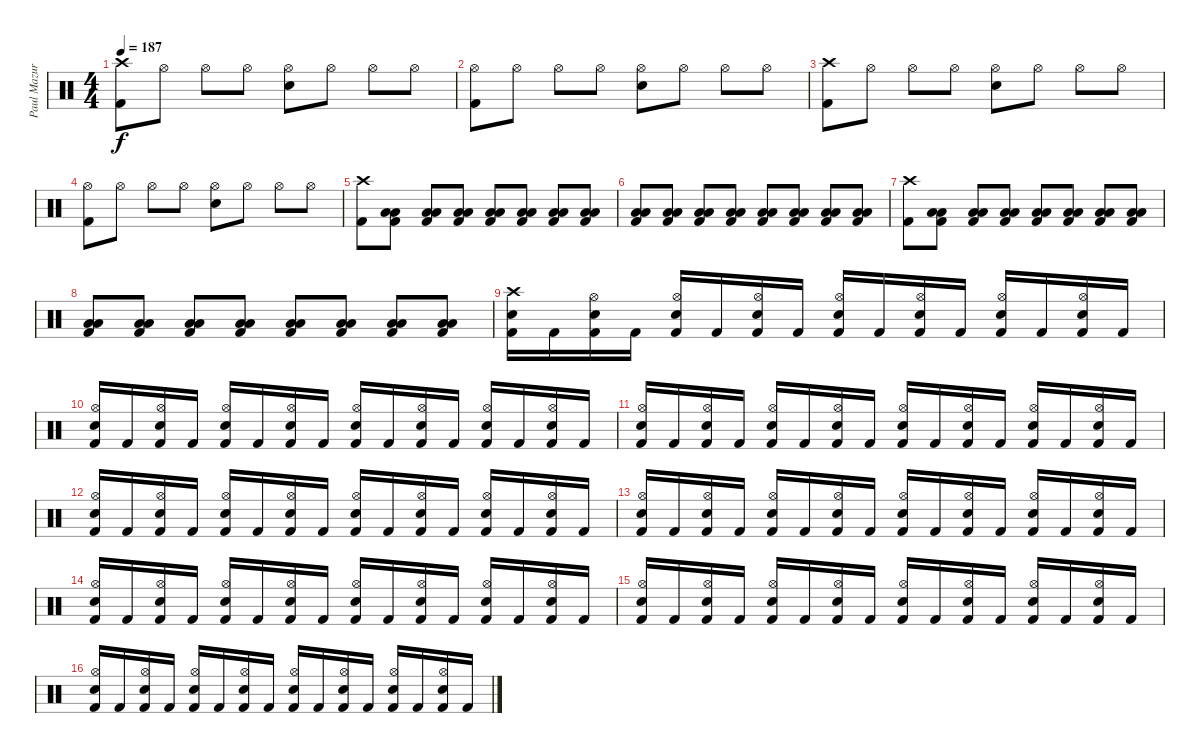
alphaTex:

\track ("Paul Mazurkiewicz - Drums" "Paul Mazur") {instrument percussion}
\staff {score}
\articulation defaults
\ts (4 4)
\tempo 187
\clef neutral
\ks c
("Crash high (hit)" "Kick (hit) 2").8{dy f} "Hi-Hat (open)".8 "Hi-Hat (open)".8 "Hi-Hat (open)".8 ("Hi-Hat (open)" "Snare (hit) 2").8 "Hi-Hat (open)".8 "Hi-Hat (open)".8 "Hi-Hat (open)".8 |
("Hi-Hat (open)" "Kick (hit) 2").8 "Hi-Hat (open)".8 "Hi-Hat (open)".8 "Hi-Hat (open)".8 ("Hi-Hat (open)" "Snare (hit) 2").8 "Hi-Hat (open)".8 "Hi-Hat (open)".8 "Hi-Hat (open)".8 |
("Crash high (hit)" "Kick (hit) 2").8 "Hi-Hat (open)".8 "Hi-Hat (open)".8 "Hi-Hat (open)".8 ("Hi-Hat (open)" "Snare (hit) 2").8 "Hi-Hat (open)".8 "Hi-Hat (open)".8 "Hi-Hat (open)".8 |
("Hi-Hat (open)" "Kick (hit) 2").8 "Hi-Hat (open)".8 "Hi-Hat (open)".8 "Hi-Hat (open)".8 ("Hi-Hat (open)" "Snare (hit) 2").8 "Hi-Hat (open)".8 "Hi-Hat (open)".8 "Hi-Hat (open)".8 |
("Kick (hit) 2" "Crash high (hit)").8{volume 16} ("Low Tom (hit)" "Low Floor Tom (hit)" "Kick (hit) 2").8 ("Low Tom (hit)" "Low Floor Tom (hit)" "Kick (hit) 2").8 ("Low Tom (hit)" "Low Floor Tom (hit)" "Kick (hit) 2").8 ("Low Tom (hit)" "Low Floor Tom (hit)" "Kick (hit) 2").8 ("Low Tom (hit)" "Low Floor Tom (hit)" "Kick (hit) 2").8 ("Low Tom (hit)" "Low Floor Tom (hit)" "Kick (hit) 2").8 ("Low Tom (hit)" "Low Floor Tom (hit)" "Kick (hit) 2").8 |
("Low Tom (hit)" "Low Floor Tom (hit)" "Kick (hit) 2").8 ("Low Tom (hit)" "Low Floor Tom (hit)" "Kick (hit) 2").8 ("Low Tom (hit)" "Low Floor Tom (hit)" "Kick (hit) 2").8 ("Low Tom (hit)" "Low Floor Tom (hit)" "Kick (hit) 2").8 ("Low Tom (hit)" "Low Floor Tom (hit)" "Kick (hit) 2").8 ("Low Tom (hit)" "Low Floor Tom (hit)" "Kick (hit) 2").8 ("Low Tom (hit)" "Low Floor Tom (hit)" "Kick (hit) 2").8 ("Low Tom (hit)" "Low Floor Tom (hit)" "Kick (hit) 2").8 |
("Kick (hit) 2" "Crash high (hit)").8{volume 16} ("Low Tom (hit)" "Low Floor Tom (hit)" "Kick (hit) 2").8 ("Low Tom (hit)" "Low Floor Tom (hit)" "Kick (hit) 2").8 ("Low Tom (hit)" "Low Floor Tom (hit)" "Kick (hit) 2").8 ("Low Tom (hit)" "Low Floor Tom (hit)" "Kick (hit) 2").8 ("Low Tom (hit)" "Low Floor Tom (hit)" "Kick (hit) 2").8 ("Low Tom (hit)" "Low Floor Tom (hit)" "Kick (hit) 2").8 ("Low Tom (hit)" "Low Floor Tom (hit)" "Kick (hit) 2").8 |
("Low Tom (hit)" "Low Floor Tom (hit)" "Kick (hit) 2").8 ("Low Tom (hit)" "Low Floor Tom (hit)" "Kick (hit) 2").8 ("Low Tom (hit)" "Low Floor Tom (hit)" "Kick (hit) 2").8 ("Low Tom (hit)" "Low Floor Tom (hit)" "Kick (hit) 2").8 ("Low Tom (hit)" "Low Floor Tom (hit)" "Kick (hit) 2").8 ("Low Tom (hit)" "Low Floor Tom (hit)" "Kick (hit) 2").8 ("Low Tom (hit)" "Low Floor Tom (hit)" "Kick (hit) 2").8 ("Low Tom (hit)" "Low Floor Tom (hit)" "Kick (hit) 2").8 |
("Crash high (hit)" "Snare (hit) 2" "Kick (hit) 2").16 "Kick (hit) 2".16 ("Hi-Hat (open)" "Snare (hit) 2" "Kick (hit) 2").16 "Kick (hit) 2".16 ("Hi-Hat (open)" "Snare (hit) 2" "Kick (hit) 2").16 "Kick (hit) 2".16 ("Hi-Hat (open)" "Snare (hit) 2" "Kick (hit) 2").16 "Kick (hit) 2".16 ("Hi-Hat (open)" "Snare (hit) 2" "Kick (hit) 2").16 "Kick (hit) 2".16 ("Hi-Hat (open)" "Snare (hit) 2" "Kick (hit) 2").16 "Kick (hit) 2".16 ("Hi-Hat (open)" "Snare (hit) 2" "Kick (hit) 2").16 "Kick (hit) 2".16 ("Hi-Hat (open)" "Snare (hit) 2" "Kick (hit) 2").16 "Kick (hit) 2".16 |
("Hi-Hat (open)" "Snare (hit) 2" "Kick (hit) 2").16 "Kick (hit) 2".16 ("Hi-Hat (open)" "Snare (hit) 2" "Kick (hit) 2").16 "Kick (hit) 2".16 ("Hi-Hat (open)" "Snare (hit) 2" "Kick (hit) 2").16 "Kick (hit) 2".16 ("Hi-Hat (open)" "Snare (hit) 2" "Kick (hit) 2").16 "Kick (hit) 2".16 ("Hi-Hat (open)" "Snare (hit) 2" "Kick (hit) 2").16 "Kick (hit) 2".16 ("Hi-Hat (open)" "Snare (hit) 2" "Kick (hit) 2").16 "Kick (hit) 2".16 ("Hi-Hat (open)" "Snare (hit) 2" "Kick (hit) 2").16 "Kick (hit) 2".16 ("Hi-Hat (open)" "Snare (hit) 2" "Kick (hit) 2").16 "Kick (hit) 2".16 |
("Hi-Hat (open)" "Snare (hit) 2" "Kick (hit) 2").16 "Kick (hit) 2".16 ("Hi-Hat (open)" "Snare (hit) 2" "Kick (hit) 2").16 "Kick (hit) 2".16 ("Hi-Hat (open)" "Snare (hit) 2" "Kick (hit) 2").16 "Kick (hit) 2".16 ("Hi-Hat (open)" "Snare (hit) 2" "Kick (hit) 2").16 "Kick (hit) 2".16 ("Hi-Hat (open)" "Snare (hit) 2" "Kick (hit) 2").16 "Kick (hit) 2".16 ("Hi-Hat (open)" "Snare (hit) 2" "Kick (hit) 2").16 "Kick (hit) 2".16 ("Hi-Hat (open)" "Snare (hit) 2" "Kick (hit) 2").16 "Kick (hit) 2".16 ("Hi-Hat (open)" "Snare (hit) 2" "Kick (hit) 2").16 "Kick (hit) 2".16 |
("Hi-Hat (open)" "Snare (hit) 2" "Kick (hit) 2").16 "Kick (hit) 2".16 ("Hi-Hat (open)" "Snare (hit) 2" "Kick (hit) 2").16 "Kick (hit) 2".16 ("Hi-Hat (open)" "Snare (hit) 2" "Kick (hit) 2").16 "Kick (hit) 2".16 ("Hi-Hat (open)" "Snare (hit) 2" "Kick (hit) 2").16 "Kick (hit) 2".16 ("Hi-Hat (open)" "Snare (hit) 2" "Kick (hit) 2").16 "Kick (hit) 2".16 ("Hi-Hat (open)" "Snare (hit) 2" "Kick (hit) 2").16 "Kick (hit) 2".16 ("Hi-Hat (open)" "Snare (hit) 2" "Kick (hit) 2").16 "Kick (hit) 2".16 ("Hi-Hat (open)" "Snare (hit) 2" "Kick (hit) 2").16 "Kick (hit) 2".16 |
("Hi-Hat (open)" "Snare (hit) 2" "Kick (hit) 2").16 "Kick (hit) 2".16 ("Hi-Hat (open)" "Snare (hit) 2" "Kick (hit) 2").16 "Kick (hit) 2".16 ("Hi-Hat (open)" "Snare (hit) 2" "Kick (hit) 2").16 "Kick (hit) 2".16 ("Hi-Hat (open)" "Snare (hit) 2" "Kick (hit) 2").16 "Kick (hit) 2".16 ("Hi-Hat (open)" "Snare (hit) 2" "Kick (hit) 2").16 "Kick (hit) 2".16 ("Hi-Hat (open)" "Snare (hit) 2" "Kick (hit) 2").16 "Kick (hit) 2".16 ("Hi-Hat (open)" "Snare (hit) 2" "Kick (hit) 2").16 "Kick (hit) 2".16 ("Hi-Hat (open)" "Snare (hit) 2" "Kick (hit) 2").16 "Kick (hit) 2".16 |
("Hi-Hat (open)" "Snare (hit) 2" "Kick (hit) 2").16 "Kick (hit) 2".16 ("Hi-Hat (open)" "Snare (hit) 2" "Kick (hit) 2").16 "Kick (hit) 2".16 ("Hi-Hat (open)" "Snare (hit) 2" "Kick (hit) 2").16 "Kick (hit) 2".16 ("Hi-Hat (open)" "Snare (hit) 2" "Kick (hit) 2").16 "Kick (hit) 2".16 ("Hi-Hat (open)" "Snare (hit) 2" "Kick (hit) 2").16 "Kick (hit) 2".16 ("Hi-Hat (open)" "Snare (hit) 2" "Kick (hit) 2").16 "Kick (hit) 2".16 ("Hi-Hat (open)" "Snare (hit) 2" "Kick (hit) 2").16 "Kick (hit) 2".16 ("Hi-Hat (open)" "Snare (hit) 2" "Kick (hit) 2").16 "Kick (hit) 2".16 |
("Hi-Hat (open)" "Snare (hit) 2" "Kick (hit) 2").16 "Kick (hit) 2".16 ("Hi-Hat (open)" "Snare (hit) 2" "Kick (hit) 2").16 "Kick (hit) 2".16 ("Hi-Hat (open)" "Snare (hit) 2" "Kick (hit) 2").16 "Kick (hit) 2".16 ("Hi-Hat (open)" "Snare (hit) 2" "Kick (hit) 2").16 "Kick (hit) 2".16 ("Hi-Hat (open)" "Snare (hit) 2" "Kick (hit) 2").16 "Kick (hit) 2".16 ("Hi-Hat (open)" "Snare (hit) 2" "Kick (hit) 2").16 "Kick (hit) 2".16 ("Hi-Hat (open)" "Snare (hit) 2" "Kick (hit) 2").16 "Kick (hit) 2".16 ("Hi-Hat (open)" "Snare (hit) 2" "Kick (hit) 2").16 "Kick (hit) 2".16 |
("Hi-Hat (open)" "Snare (hit) 2" "Kick (hit) 2").16 "Kick (hit) 2".16 ("Hi-Hat (open)" "Snare (hit) 2" "Kick (hit) 2").16 "Kick (hit) 2".16 ("Hi-Hat (open)" "Snare (hit) 2" "Kick (hit) 2").16 "Kick (hit) 2".16 ("Hi-Hat (open)" "Snare (hit) 2" "Kick (hit) 2").16 "Kick (hit) 2".16 ("Hi-Hat (open)" "Snare (hit) 2" "Kick (hit) 2").16 "Kick (hit) 2".16 ("Hi-Hat (open)" "Snare (hit) 2" "Kick (hit) 2").16 "Kick (hit) 2".16 ("Hi-Hat (open)" "Snare (hit) 2" "Kick (hit) 2").16 "Kick (hit) 2".16 ("Hi-Hat (open)" "Snare (hit) 2" "Kick (hit) 2").16 "Kick (hit) 2".16
